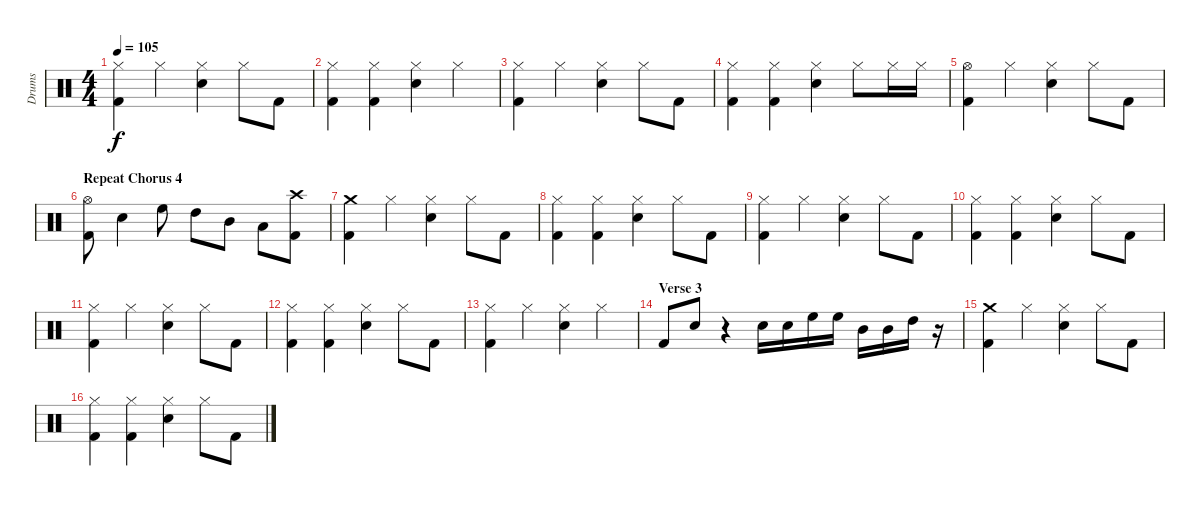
\track ("Drums" "Drums") {instrument percussion}
\staff {score}
\articulation defaults
\ts (4 4)
\tempo 105
\clef neutral
\ks c
("Hi-Hat (closed)" "Kick (hit) 2").4{dy f} "Hi-Hat (closed)".4 ("Hi-Hat (closed)" "Snare (hit) 2").4 "Hi-Hat (closed)".8 "Kick (hit) 2".8 |
("Hi-Hat (closed)" "Kick (hit) 2").4 ("Hi-Hat (closed)" "Kick (hit) 2").4 ("Hi-Hat (closed)" "Snare (hit) 2").4 "Hi-Hat (closed)".4 |
("Hi-Hat (closed)" "Kick (hit) 2").4 "Hi-Hat (closed)".4 ("Hi-Hat (closed)" "Snare (hit) 2").4 "Hi-Hat (closed)".8 "Kick (hit) 2".8 |
("Hi-Hat (closed)" "Kick (hit) 2").4 ("Hi-Hat (closed)" "Kick (hit) 2").4 ("Hi-Hat (closed)" "Snare (hit) 2").4 "Hi-Hat (closed)".8 "Hi-Hat (closed)".16 "Hi-Hat (closed)".16 |
("Hi-Hat (open)" "Kick (hit) 2").4 "Hi-Hat (closed)".4 ("Hi-Hat (closed)" "Snare (hit) 2").4 "Hi-Hat (closed)".8 "Kick (hit) 2".8 |
\section ("" "Repeat Chorus 4")
("Hi-Hat (open)" "Kick (hit) 2").8 "Snare (hit) 2".4 "High Floor Tom (hit)".8 "High Tom (hit)".8 "Mid Tom (hit)".8 "Low Tom (hit)".8 ("Crash high (hit)" "Kick (hit) 2").8 |
("Crash medium (hit)" "Kick (hit) 2").4 "Hi-Hat (closed)".4 ("Hi-Hat (closed)" "Snare (hit) 2").4 "Hi-Hat (closed)".8 "Kick (hit) 2".8 |
("Hi-Hat (closed)" "Kick (hit) 2").4 ("Hi-Hat (closed)" "Kick (hit) 2").4 ("Hi-Hat (closed)" "Snare (hit) 2").4 "Hi-Hat (closed)".8 "Kick (hit) 2".8 |
("Hi-Hat (closed)" "Kick (hit) 2").4 "Hi-Hat (closed)".4 ("Hi-Hat (closed)" "Snare (hit) 2").4 "Hi-Hat (closed)".8 "Kick (hit) 2".8 |
("Hi-Hat (closed)" "Kick (hit) 2").4 ("Hi-Hat (closed)" "Kick (hit) 2").4 ("Hi-Hat (closed)" "Snare (hit) 2").4 "Hi-Hat (closed)".8 "Kick (hit) 2".8 |
("Hi-Hat (closed)" "Kick (hit) 2").4 "Hi-Hat (closed)".4 ("Hi-Hat (closed)" "Snare (hit) 2").4 "Hi-Hat (closed)".8 "Kick (hit) 2".8 |
("Hi-Hat (closed)" "Kick (hit) 2").4 ("Hi-Hat (closed)" "Kick (hit) 2").4 ("Hi-Hat (closed)" "Snare (hit) 2").4 "Hi-Hat (closed)".8 "Kick (hit) 2".8 |
("Hi-Hat (closed)" "Kick (hit) 2").4 "Hi-Hat (closed)".4 ("Hi-Hat (closed)" "Snare (hit) 2").4 "Hi-Hat (closed)".4 |
\section ("" "Verse 3")
"Kick (hit) 2".8 "Snare (hit) 2".8 r.4 "Snare (hit) 2".16 "Snare (hit) 2".16 "High Floor Tom (hit)".16 "High Floor Tom (hit)".16 "Mid Tom (hit)".16 "Mid Tom (hit)".16 "High Tom (hit)".16 r.16 |
("Crash medium (hit)" "Kick (hit) 2").4 "Hi-Hat (closed)".4 ("Hi-Hat (closed)" "Snare (hit) 2").4 "Hi-Hat (closed)".8 "Kick (hit) 2".8 |
("Hi-Hat (closed)" "Kick (hit) 2").4 ("Hi-Hat (closed)" "Kick (hit) 2").4 ("Hi-Hat (closed)" "Snare (hit) 2").4 "Hi-Hat (closed)".8 "Kick (hit) 2".8
